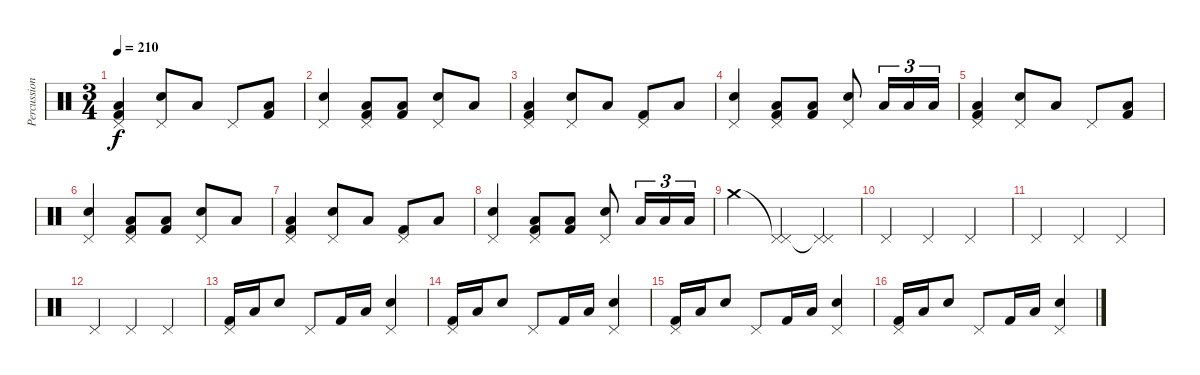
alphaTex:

\track ("Percussion" "Percussion") {instrument percussion}
\staff
\articulation defaults
\ts (3 4)
\tempo 210
\clef neutral
\ks c
("Pedal Hi-Hat (hit)" "Low Floor Tom (hit)" "Kick (hit) 2").4{dy f} ("Pedal Hi-Hat (hit)" "Electric Snare (hit)").8 "Low Floor Tom (hit)".8 "Pedal Hi-Hat (hit)".8 ("Low Floor Tom (hit)" "Kick (hit) 2").8 |
("Pedal Hi-Hat (hit)" "Electric Snare (hit)").4 ("Pedal Hi-Hat (hit)" "Low Floor Tom (hit)" "Kick (hit) 2").8 ("Low Floor Tom (hit)" "Kick (hit) 2").8 ("Pedal Hi-Hat (hit)" "Electric Snare (hit)").8 "Low Floor Tom (hit)".8 |
("Pedal Hi-Hat (hit)" "Low Floor Tom (hit)" "Kick (hit) 2").4 ("Pedal Hi-Hat (hit)" "Electric Snare (hit)").8 "Low Floor Tom (hit)".8 ("Pedal Hi-Hat (hit)" "Kick (hit) 2").8 "Low Floor Tom (hit)".8 |
("Pedal Hi-Hat (hit)" "Electric Snare (hit)").4 ("Pedal Hi-Hat (hit)" "Low Floor Tom (hit)" "Kick (hit) 2").8 ("Low Floor Tom (hit)" "Kick (hit) 2").8 ("Pedal Hi-Hat (hit)" "Electric Snare (hit)").8 "Low Floor Tom (hit)".16{tu (3 2)} "Low Floor Tom (hit)".16{tu (3 2)} "Low Floor Tom (hit)".16{tu (3 2)} |
("Pedal Hi-Hat (hit)" "Low Floor Tom (hit)" "Kick (hit) 2").4 ("Pedal Hi-Hat (hit)" "Electric Snare (hit)").8 "Low Floor Tom (hit)".8 "Pedal Hi-Hat (hit)".8 ("Low Floor Tom (hit)" "Kick (hit) 2").8 |
("Pedal Hi-Hat (hit)" "Electric Snare (hit)").4 ("Pedal Hi-Hat (hit)" "Low Floor Tom (hit)" "Kick (hit) 2").8 ("Low Floor Tom (hit)" "Kick (hit) 2").8 ("Pedal Hi-Hat (hit)" "Electric Snare (hit)").8 "Low Floor Tom (hit)".8 |
("Pedal Hi-Hat (hit)" "Low Floor Tom (hit)" "Kick (hit) 2").4 ("Pedal Hi-Hat (hit)" "Electric Snare (hit)").8 "Low Floor Tom (hit)".8 ("Pedal Hi-Hat (hit)" "Kick (hit) 2").8 "Low Floor Tom (hit)".8 |
("Pedal Hi-Hat (hit)" "Electric Snare (hit)").4 ("Pedal Hi-Hat (hit)" "Low Floor Tom (hit)" "Kick (hit) 2").8 ("Low Floor Tom (hit)" "Kick (hit) 2").8 ("Pedal Hi-Hat (hit)" "Electric Snare (hit)").8 "Low Floor Tom (hit)".16{tu (3 2)} "Low Floor Tom (hit)".16{tu (3 2)} "Low Floor Tom (hit)".16{tu (3 2)} |
"Crash medium (hit)".4 ("Pedal Hi-Hat (hit)"{t} "Pedal Hi-Hat (hit)").4 ("Pedal Hi-Hat (hit)"{t} "Pedal Hi-Hat (hit)").4 |
"Pedal Hi-Hat (hit)".4 "Pedal Hi-Hat (hit)".4 "Pedal Hi-Hat (hit)".4 |
"Pedal Hi-Hat (hit)".4 "Pedal Hi-Hat (hit)".4 "Pedal Hi-Hat (hit)".4 |
"Pedal Hi-Hat (hit)".4 "Pedal Hi-Hat (hit)".4 "Pedal Hi-Hat (hit)".4 |
("Pedal Hi-Hat (hit)" "Kick (hit) 2").16 "Low Floor Tom (hit)".16 "Electric Snare (hit)".8 "Pedal Hi-Hat (hit)".8 "Kick (hit) 2".16 "Low Floor Tom (hit)".16 ("Pedal Hi-Hat (hit)" "Electric Snare (hit)").4 |
("Pedal Hi-Hat (hit)" "Kick (hit) 2").16 "Low Floor Tom (hit)".16 "Electric Snare (hit)".8 "Pedal Hi-Hat (hit)".8 "Kick (hit) 2".16 "Low Floor Tom (hit)".16 ("Pedal Hi-Hat (hit)" "Electric Snare (hit)").4 |
("Pedal Hi-Hat (hit)" "Kick (hit) 2").16 "Low Floor Tom (hit)".16 "Electric Snare (hit)".8 "Pedal Hi-Hat (hit)".8 "Kick (hit) 2".16 "Low Floor Tom (hit)".16 ("Pedal Hi-Hat (hit)" "Electric Snare (hit)").4 |
("Pedal Hi-Hat (hit)" "Kick (hit) 2").16 "Low Floor Tom (hit)".16 "Electric Snare (hit)".8 "Pedal Hi-Hat (hit)".8 "Kick (hit) 2".16 "Low Floor Tom (hit)".16 ("Pedal Hi-Hat (hit)" "Electric Snare (hit)").4
